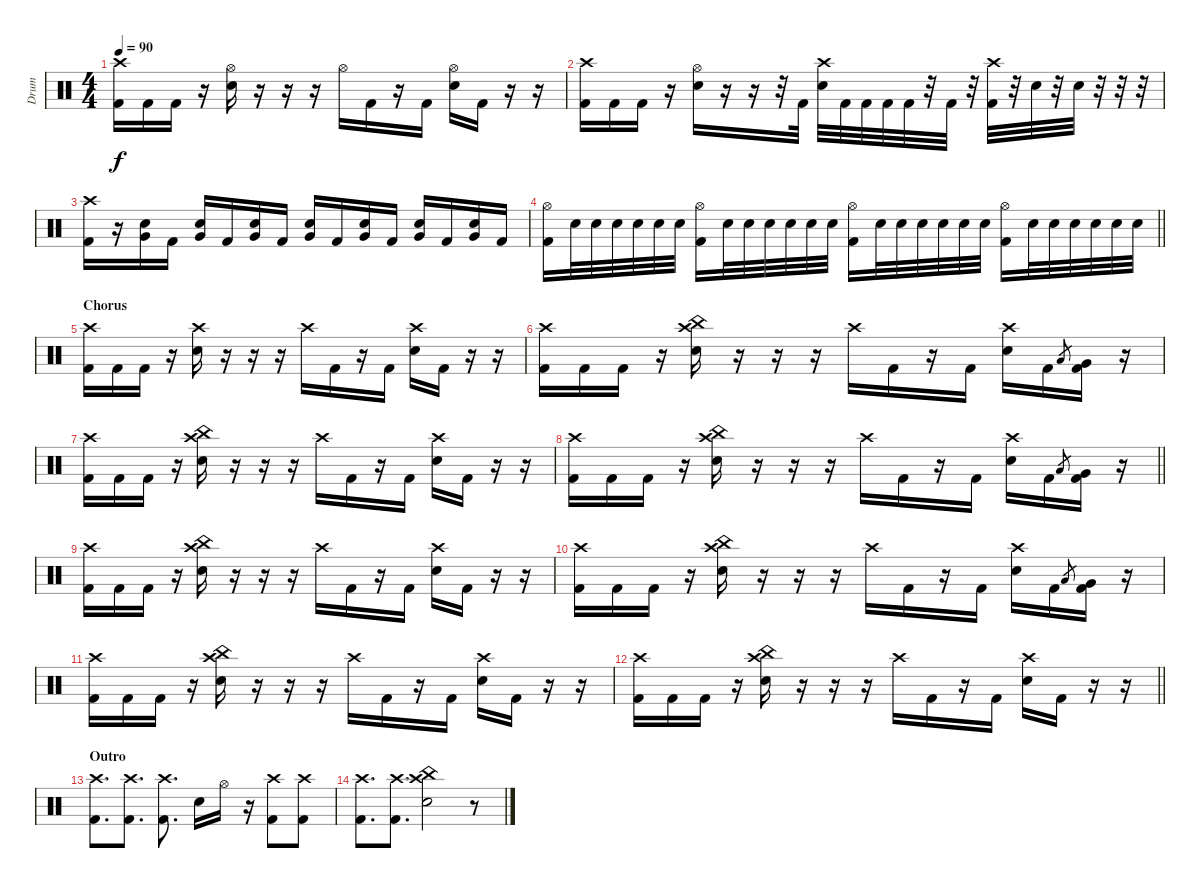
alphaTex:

\track ("Drum" "Drum") {instrument percussion}
\staff {score}
\articulation defaults
\ts (4 4)
\tempo 90
\clef neutral
\ks c
("Crash high (hit)" "Kick (hit) 2").16{dy f volume 13} "Kick (hit) 2".16 "Kick (hit) 2".16 r.16 ("Hi-Hat (open)" "Electric Snare (hit)").16 r.16 r.16 r.16 "Hi-Hat (open)".16 "Kick (hit) 2".16 r.16 "Kick (hit) 2".16 ("Hi-Hat (open)" "Electric Snare (hit)").16 "Kick (hit) 2".16 r.16 r.16 |
("Crash high (hit)" "Kick (hit) 2").16 "Kick (hit) 2".16 "Kick (hit) 2".16 r.16 ("Hi-Hat (open)" "Electric Snare (hit)").16 r.16 r.16 r.32 "Kick (hit) 2".32 ("Crash high (hit)" "Electric Snare (hit)").32{volume 9} "Kick (hit) 2".32 "Kick (hit) 2".32 "Kick (hit) 2".32 "Kick (hit) 2".32 r.32 "Kick (hit) 2".32 r.32 ("Crash high (hit)" "Kick (hit) 2").32 r.32 "Electric Snare (hit)".32 r.32 "Electric Snare (hit)".32 r.32 r.32 r.32 |
("Crash high (hit)" "Kick (hit) 2").16{volume 13} r.16 ("Electric Snare (hit)" "Very Low Tom (hit)").16 "Kick (hit) 2".16 ("Electric Snare (hit)" "Very Low Tom (hit)").16 "Kick (hit) 2".16 ("Electric Snare (hit)" "Very Low Tom (hit)").16 "Kick (hit) 2".16 ("Electric Snare (hit)" "Very Low Tom (hit)").16 "Kick (hit) 2".16 ("Electric Snare (hit)" "Very Low Tom (hit)").16 "Kick (hit) 2".16 ("Electric Snare (hit)" "Very Low Tom (hit)").16 "Kick (hit) 2".16 ("Electric Snare (hit)" "Very Low Tom (hit)").16 "Kick (hit) 2".16 |
\barLineRight lightlight
("Hi-Hat (open)" "Kick (hit) 2").16 "Electric Snare (hit)".32 "Electric Snare (hit)".32 "Electric Snare (hit)".32 "Electric Snare (hit)".32 "Electric Snare (hit)".32 "Electric Snare (hit)".32 ("Hi-Hat (open)" "Kick (hit) 2").16 "Electric Snare (hit)".32 "Electric Snare (hit)".32 "Electric Snare (hit)".32 "Electric Snare (hit)".32 "Electric Snare (hit)".32 "Electric Snare (hit)".32 ("Hi-Hat (open)" "Kick (hit) 2").16 "Electric Snare (hit)".32 "Electric Snare (hit)".32 "Electric Snare (hit)".32 "Electric Snare (hit)".32 "Electric Snare (hit)".32 "Electric Snare (hit)".32 ("Hi-Hat (open)" "Kick (hit) 2").16 "Electric Snare (hit)".32 "Electric Snare (hit)".32 "Electric Snare (hit)".32 "Electric Snare (hit)".32 "Electric Snare (hit)".32 "Electric Snare (hit)".32 |
\section ("" "Chorus")
("Crash high (hit)" "Kick (hit) 2").16 "Kick (hit) 2".16 "Kick (hit) 2".16 r.16 ("Crash high (hit)" "Electric Snare (hit)").16 r.16 r.16 r.16 "Crash high (hit)".16 "Kick (hit) 2".16 r.16 "Kick (hit) 2".16 ("Crash high (hit)" "Electric Snare (hit)").16 "Kick (hit) 2".16 r.16 r.16 |
("Crash high (hit)" "Kick (hit) 2").16 "Kick (hit) 2".16 "Kick (hit) 2".16 r.16 ("China (hit)" "Crash high (hit)" "Electric Snare (hit)").16 r.16 r.16 r.16 "Crash high (hit)".16 "Kick (hit) 2".16 r.16 "Kick (hit) 2".16 ("Crash high (hit)" "Electric Snare (hit)").16 "Kick (hit) 2".16 "Low Floor Tom (hit)".8{gr} ("Very Low Tom (hit)" "Kick (hit) 2").16 r.16 |
("Crash high (hit)" "Kick (hit) 2").16 "Kick (hit) 2".16 "Kick (hit) 2".16 r.16 ("China (hit)" "Crash high (hit)" "Electric Snare (hit)").16 r.16 r.16 r.16 "Crash high (hit)".16 "Kick (hit) 2".16 r.16 "Kick (hit) 2".16 ("Crash high (hit)" "Electric Snare (hit)").16 "Kick (hit) 2".16 r.16 r.16 |
\barLineRight lightlight
("Crash high (hit)" "Kick (hit) 2").16 "Kick (hit) 2".16 "Kick (hit) 2".16 r.16 ("China (hit)" "Crash high (hit)" "Electric Snare (hit)").16 r.16 r.16 r.16 "Crash high (hit)".16 "Kick (hit) 2".16 r.16 "Kick (hit) 2".16 ("Crash high (hit)" "Electric Snare (hit)").16 "Kick (hit) 2".16 "Low Floor Tom (hit)".8{gr} ("Very Low Tom (hit)" "Kick (hit) 2").16 r.16 |
("Crash high (hit)" "Kick (hit) 2").16 "Kick (hit) 2".16 "Kick (hit) 2".16 r.16 ("China (hit)" "Crash high (hit)" "Electric Snare (hit)").16 r.16 r.16 r.16 "Crash high (hit)".16 "Kick (hit) 2".16 r.16 "Kick (hit) 2".16 ("Crash high (hit)" "Electric Snare (hit)").16 "Kick (hit) 2".16 r.16 r.16 |
("Crash high (hit)" "Kick (hit) 2").16 "Kick (hit) 2".16 "Kick (hit) 2".16 r.16 ("China (hit)" "Crash high (hit)" "Electric Snare (hit)").16 r.16 r.16 r.16 "Crash high (hit)".16 "Kick (hit) 2".16 r.16 "Kick (hit) 2".16 ("Crash high (hit)" "Electric Snare (hit)").16 "Kick (hit) 2".16 "Low Floor Tom (hit)".8{gr} ("Very Low Tom (hit)" "Kick (hit) 2").16 r.16 |
("Crash high (hit)" "Kick (hit) 2").16 "Kick (hit) 2".16 "Kick (hit) 2".16 r.16 ("China (hit)" "Crash high (hit)" "Electric Snare (hit)").16 r.16 r.16 r.16 "Crash high (hit)".16 "Kick (hit) 2".16 r.16 "Kick (hit) 2".16 ("Crash high (hit)" "Electric Snare (hit)").16 "Kick (hit) 2".16 r.16 r.16 |
\barLineRight lightlight
("Crash high (hit)" "Kick (hit) 2").16 "Kick (hit) 2".16 "Kick (hit) 2".16 r.16 ("China (hit)" "Crash high (hit)" "Electric Snare (hit)").16 r.16 r.16 r.16 "Crash high (hit)".16 "Kick (hit) 2".16 r.16 "Kick (hit) 2".16 ("Crash high (hit)" "Electric Snare (hit)").16 "Kick (hit) 2".16 r.16 r.16 |
\section ("" "Outro")
("Crash high (hit)" "Kick (hit) 2").8{d} ("Crash high (hit)" "Kick (hit) 2").8{d} ("Crash high (hit)" "Kick (hit) 2").8{d} "Electric Snare (hit)".16 "Hi-Hat (open)".16 r.16 ("Crash high (hit)" "Kick (hit) 2").8 ("Crash high (hit)" "Kick (hit) 2").8 |
("Crash high (hit)" "Kick (hit) 2").8{d} ("Crash high (hit)" "Kick (hit) 2").8{d} ("China (hit)" "Crash high (hit)" "Electric Snare (hit)").2 r.8
